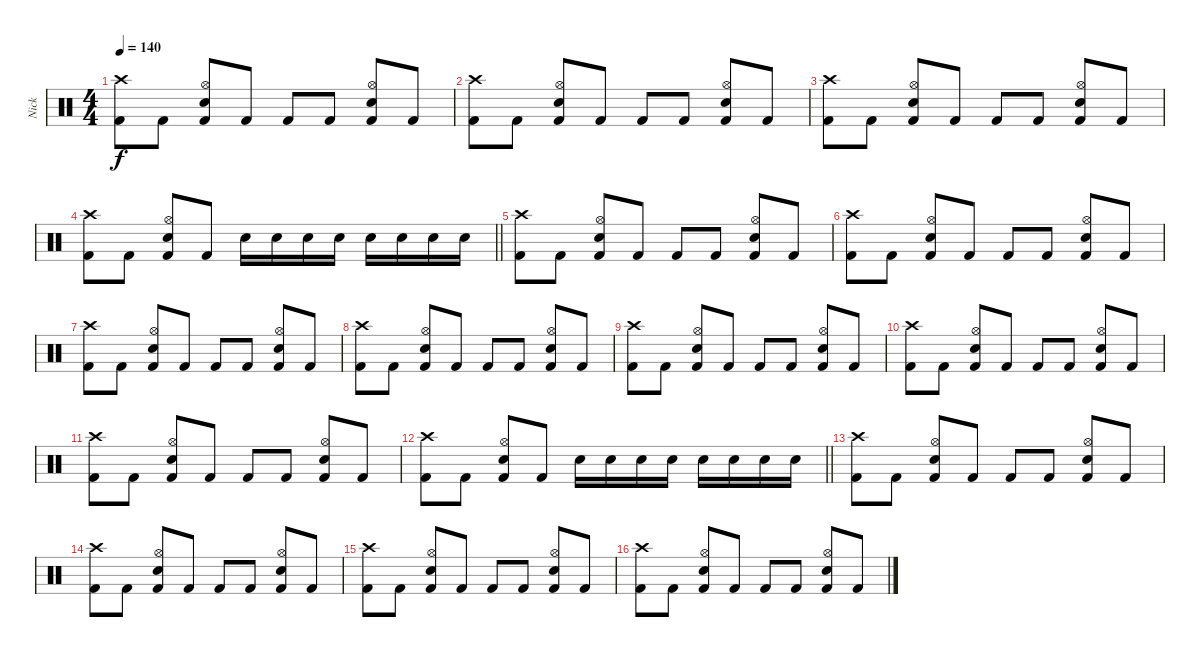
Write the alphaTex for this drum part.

\track ("Nick" "Nick") {instrument percussion}
\staff {score}
\articulation defaults
\ts (4 4)
\tempo 140
\clef neutral
\ks c
("Crash high (hit)" "Kick (hit) 2").8{dy f} "Kick (hit) 2".8 ("Hi-Hat (open)" "Snare (hit) 2" "Kick (hit) 2").8 "Kick (hit) 2".8 "Kick (hit) 2".8 "Kick (hit) 2".8 ("Hi-Hat (open)" "Snare (hit) 2" "Kick (hit) 2").8 "Kick (hit) 2".8 |
("Crash high (hit)" "Kick (hit) 2").8 "Kick (hit) 2".8 ("Hi-Hat (open)" "Snare (hit) 2" "Kick (hit) 2").8 "Kick (hit) 2".8 "Kick (hit) 2".8 "Kick (hit) 2".8 ("Hi-Hat (open)" "Snare (hit) 2" "Kick (hit) 2").8 "Kick (hit) 2".8 |
("Crash high (hit)" "Kick (hit) 2").8 "Kick (hit) 2".8 ("Hi-Hat (open)" "Snare (hit) 2" "Kick (hit) 2").8 "Kick (hit) 2".8 "Kick (hit) 2".8 "Kick (hit) 2".8 ("Hi-Hat (open)" "Snare (hit) 2" "Kick (hit) 2").8 "Kick (hit) 2".8 |
\barLineRight lightlight
("Crash high (hit)" "Kick (hit) 2").8 "Kick (hit) 2".8 ("Hi-Hat (open)" "Snare (hit) 2" "Kick (hit) 2").8 "Kick (hit) 2".8 "Snare (hit) 2".16 "Snare (hit) 2".16 "Snare (hit) 2".16 "Snare (hit) 2".16 "Snare (hit) 2".16 "Snare (hit) 2".16 "Snare (hit) 2".16 "Snare (hit) 2".16 |
("Crash high (hit)" "Kick (hit) 2").8 "Kick (hit) 2".8 ("Hi-Hat (open)" "Snare (hit) 2" "Kick (hit) 2").8 "Kick (hit) 2".8 "Kick (hit) 2".8 "Kick (hit) 2".8 ("Hi-Hat (open)" "Snare (hit) 2" "Kick (hit) 2").8 "Kick (hit) 2".8 |
("Crash high (hit)" "Kick (hit) 2").8 "Kick (hit) 2".8 ("Hi-Hat (open)" "Snare (hit) 2" "Kick (hit) 2").8 "Kick (hit) 2".8 "Kick (hit) 2".8 "Kick (hit) 2".8 ("Hi-Hat (open)" "Snare (hit) 2" "Kick (hit) 2").8 "Kick (hit) 2".8 |
("Crash high (hit)" "Kick (hit) 2").8 "Kick (hit) 2".8 ("Hi-Hat (open)" "Snare (hit) 2" "Kick (hit) 2").8 "Kick (hit) 2".8 "Kick (hit) 2".8 "Kick (hit) 2".8 ("Hi-Hat (open)" "Snare (hit) 2" "Kick (hit) 2").8 "Kick (hit) 2".8 |
("Crash high (hit)" "Kick (hit) 2").8 "Kick (hit) 2".8 ("Hi-Hat (open)" "Snare (hit) 2" "Kick (hit) 2").8 "Kick (hit) 2".8 "Kick (hit) 2".8 "Kick (hit) 2".8 ("Hi-Hat (open)" "Snare (hit) 2" "Kick (hit) 2").8 "Kick (hit) 2".8 |
("Crash high (hit)" "Kick (hit) 2").8 "Kick (hit) 2".8 ("Hi-Hat (open)" "Snare (hit) 2" "Kick (hit) 2").8 "Kick (hit) 2".8 "Kick (hit) 2".8 "Kick (hit) 2".8 ("Hi-Hat (open)" "Snare (hit) 2" "Kick (hit) 2").8 "Kick (hit) 2".8 |
("Crash high (hit)" "Kick (hit) 2").8 "Kick (hit) 2".8 ("Hi-Hat (open)" "Snare (hit) 2" "Kick (hit) 2").8 "Kick (hit) 2".8 "Kick (hit) 2".8 "Kick (hit) 2".8 ("Hi-Hat (open)" "Snare (hit) 2" "Kick (hit) 2").8 "Kick (hit) 2".8 |
("Crash high (hit)" "Kick (hit) 2").8 "Kick (hit) 2".8 ("Hi-Hat (open)" "Snare (hit) 2" "Kick (hit) 2").8 "Kick (hit) 2".8 "Kick (hit) 2".8 "Kick (hit) 2".8 ("Hi-Hat (open)" "Snare (hit) 2" "Kick (hit) 2").8 "Kick (hit) 2".8 |
\barLineRight lightlight
("Crash high (hit)" "Kick (hit) 2").8 "Kick (hit) 2".8 ("Hi-Hat (open)" "Snare (hit) 2" "Kick (hit) 2").8 "Kick (hit) 2".8 "Snare (hit) 2".16 "Snare (hit) 2".16 "Snare (hit) 2".16 "Snare (hit) 2".16 "Snare (hit) 2".16 "Snare (hit) 2".16 "Snare (hit) 2".16 "Snare (hit) 2".16 |
("Crash high (hit)" "Kick (hit) 2").8 "Kick (hit) 2".8 ("Hi-Hat (open)" "Snare (hit) 2" "Kick (hit) 2").8 "Kick (hit) 2".8 "Kick (hit) 2".8 "Kick (hit) 2".8 ("Hi-Hat (open)" "Snare (hit) 2" "Kick (hit) 2").8 "Kick (hit) 2".8 |
("Crash high (hit)" "Kick (hit) 2").8 "Kick (hit) 2".8 ("Hi-Hat (open)" "Snare (hit) 2" "Kick (hit) 2").8 "Kick (hit) 2".8 "Kick (hit) 2".8 "Kick (hit) 2".8 ("Hi-Hat (open)" "Snare (hit) 2" "Kick (hit) 2").8 "Kick (hit) 2".8 |
("Crash high (hit)" "Kick (hit) 2").8 "Kick (hit) 2".8 ("Hi-Hat (open)" "Snare (hit) 2" "Kick (hit) 2").8 "Kick (hit) 2".8 "Kick (hit) 2".8 "Kick (hit) 2".8 ("Hi-Hat (open)" "Snare (hit) 2" "Kick (hit) 2").8 "Kick (hit) 2".8 |
("Crash high (hit)" "Kick (hit) 2").8 "Kick (hit) 2".8 ("Hi-Hat (open)" "Snare (hit) 2" "Kick (hit) 2").8 "Kick (hit) 2".8 "Kick (hit) 2".8 "Kick (hit) 2".8 ("Hi-Hat (open)" "Snare (hit) 2" "Kick (hit) 2").8 "Kick (hit) 2".8
